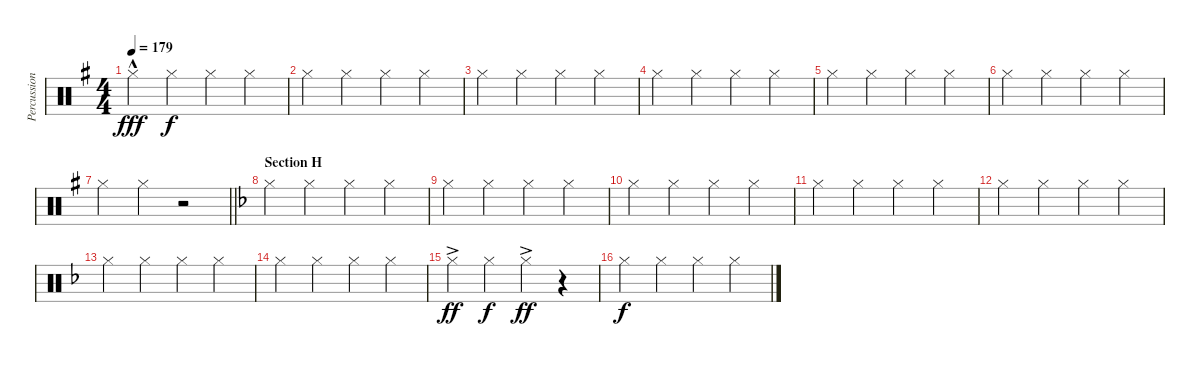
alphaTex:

\track ("Percussion 01" "Percussion") {instrument percussion}
\staff {score}
\articulation defaults
\ts (4 4)
\tempo 179
\clef neutral
\ks g "Hi-Hat (closed)"{hac}.4{dy fff} "Hi-Hat (closed)".4{dy f} "Hi-Hat (closed)".4 "Hi-Hat (closed)".4
|
"Hi-Hat (closed)".4 "Hi-Hat (closed)".4 "Hi-Hat (closed)".4 "Hi-Hat (closed)".4 |
"Hi-Hat (closed)".4 "Hi-Hat (closed)".4 "Hi-Hat (closed)".4 "Hi-Hat (closed)".4 |
"Hi-Hat (closed)".4 "Hi-Hat (closed)".4 "Hi-Hat (closed)".4 "Hi-Hat (closed)".4 |
"Hi-Hat (closed)".4 "Hi-Hat (closed)".4 "Hi-Hat (closed)".4 "Hi-Hat (closed)".4 |
"Hi-Hat (closed)".4 "Hi-Hat (closed)".4 "Hi-Hat (closed)".4 "Hi-Hat (closed)".4 |
\barLineRight lightlight "Hi-Hat (closed)".4 "Hi-Hat (closed)".4
r.2 |
\section ("" "Section H")
\ks dminor "Hi-Hat (closed)".4 "Hi-Hat (closed)".4 "Hi-Hat (closed)".4 "Hi-Hat (closed)".4
|
"Hi-Hat (closed)".4 "Hi-Hat (closed)".4 "Hi-Hat (closed)".4 "Hi-Hat (closed)".4 |
"Hi-Hat (closed)".4 "Hi-Hat (closed)".4 "Hi-Hat (closed)".4 "Hi-Hat (closed)".4 |
"Hi-Hat (closed)".4 "Hi-Hat (closed)".4 "Hi-Hat (closed)".4 "Hi-Hat (closed)".4 |
"Hi-Hat (closed)".4 "Hi-Hat (closed)".4 "Hi-Hat (closed)".4 "Hi-Hat (closed)".4 |
"Hi-Hat (closed)".4 "Hi-Hat (closed)".4 "Hi-Hat (closed)".4 "Hi-Hat (closed)".4 |
"Hi-Hat (closed)".4 "Hi-Hat (closed)".4 "Hi-Hat (closed)".4 "Hi-Hat (closed)".4 |
"Hi-Hat (closed)"{ac}.4{dy ff} "Hi-Hat (closed)".4{dy f} "Hi-Hat (closed)"{ac}.4{dy ff} r.4 |
"Hi-Hat (closed)".4{dy f} "Hi-Hat (closed)".4 "Hi-Hat (closed)".4 "Hi-Hat (closed)".4
